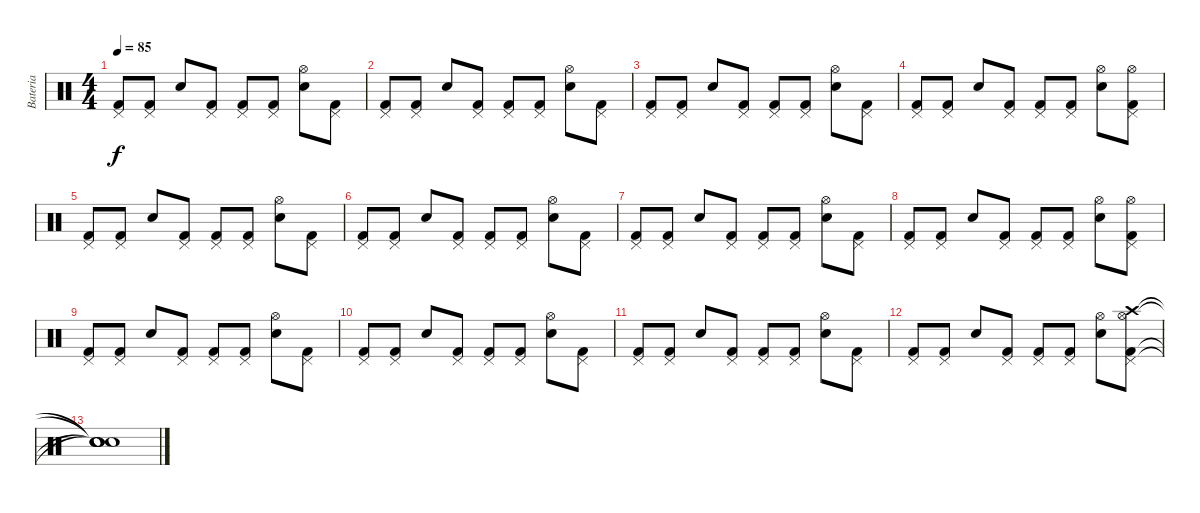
\track ("Bateria" "Bateria") {instrument percussion}
\staff {score}
\articulation defaults
\ts (4 4)
\tempo 85
\clef neutral
\ks c
("Pedal Hi-Hat (hit)" "Kick (hit) 2").8{dy f} ("Pedal Hi-Hat (hit)" "Kick (hit) 2").8 "Snare (hit) 2".8 ("Pedal Hi-Hat (hit)" "Kick (hit) 2").8 ("Pedal Hi-Hat (hit)" "Kick (hit) 2").8 ("Pedal Hi-Hat (hit)" "Kick (hit) 2").8 ("Hi-Hat (open)" "Snare (hit) 2").8 ("Pedal Hi-Hat (hit)" "Kick (hit) 2").8 |
("Pedal Hi-Hat (hit)" "Kick (hit) 2").8 ("Pedal Hi-Hat (hit)" "Kick (hit) 2").8 "Snare (hit) 2".8 ("Pedal Hi-Hat (hit)" "Kick (hit) 2").8 ("Pedal Hi-Hat (hit)" "Kick (hit) 2").8 ("Pedal Hi-Hat (hit)" "Kick (hit) 2").8 ("Hi-Hat (open)" "Snare (hit) 2").8 ("Pedal Hi-Hat (hit)" "Kick (hit) 2").8 |
("Pedal Hi-Hat (hit)" "Kick (hit) 2").8 ("Pedal Hi-Hat (hit)" "Kick (hit) 2").8 "Snare (hit) 2".8 ("Pedal Hi-Hat (hit)" "Kick (hit) 2").8 ("Pedal Hi-Hat (hit)" "Kick (hit) 2").8 ("Pedal Hi-Hat (hit)" "Kick (hit) 2").8 ("Hi-Hat (open)" "Snare (hit) 2").8 ("Pedal Hi-Hat (hit)" "Kick (hit) 2").8 |
("Pedal Hi-Hat (hit)" "Kick (hit) 2").8 ("Pedal Hi-Hat (hit)" "Kick (hit) 2").8 "Snare (hit) 2".8 ("Pedal Hi-Hat (hit)" "Kick (hit) 2").8 ("Pedal Hi-Hat (hit)" "Kick (hit) 2").8 ("Pedal Hi-Hat (hit)" "Kick (hit) 2").8 ("Hi-Hat (open)" "Snare (hit) 2").8 ("Hi-Hat (open)" "Pedal Hi-Hat (hit)" "Kick (hit) 2").8 |
("Pedal Hi-Hat (hit)" "Kick (hit) 2").8 ("Pedal Hi-Hat (hit)" "Kick (hit) 2").8 "Snare (hit) 2".8 ("Pedal Hi-Hat (hit)" "Kick (hit) 2").8 ("Pedal Hi-Hat (hit)" "Kick (hit) 2").8 ("Pedal Hi-Hat (hit)" "Kick (hit) 2").8 ("Hi-Hat (open)" "Snare (hit) 2").8 ("Pedal Hi-Hat (hit)" "Kick (hit) 2").8 |
("Pedal Hi-Hat (hit)" "Kick (hit) 2").8 ("Pedal Hi-Hat (hit)" "Kick (hit) 2").8 "Snare (hit) 2".8 ("Pedal Hi-Hat (hit)" "Kick (hit) 2").8 ("Pedal Hi-Hat (hit)" "Kick (hit) 2").8 ("Pedal Hi-Hat (hit)" "Kick (hit) 2").8 ("Hi-Hat (open)" "Snare (hit) 2").8 ("Pedal Hi-Hat (hit)" "Kick (hit) 2").8 |
("Pedal Hi-Hat (hit)" "Kick (hit) 2").8 ("Pedal Hi-Hat (hit)" "Kick (hit) 2").8 "Snare (hit) 2".8 ("Pedal Hi-Hat (hit)" "Kick (hit) 2").8 ("Pedal Hi-Hat (hit)" "Kick (hit) 2").8 ("Pedal Hi-Hat (hit)" "Kick (hit) 2").8 ("Hi-Hat (open)" "Snare (hit) 2").8 ("Pedal Hi-Hat (hit)" "Kick (hit) 2").8 |
("Pedal Hi-Hat (hit)" "Kick (hit) 2").8 ("Pedal Hi-Hat (hit)" "Kick (hit) 2").8 "Snare (hit) 2".8 ("Pedal Hi-Hat (hit)" "Kick (hit) 2").8 ("Pedal Hi-Hat (hit)" "Kick (hit) 2").8 ("Pedal Hi-Hat (hit)" "Kick (hit) 2").8 ("Hi-Hat (open)" "Snare (hit) 2").8 ("Hi-Hat (open)" "Pedal Hi-Hat (hit)" "Kick (hit) 2").8 |
("Pedal Hi-Hat (hit)" "Kick (hit) 2").8 ("Pedal Hi-Hat (hit)" "Kick (hit) 2").8 "Snare (hit) 2".8 ("Pedal Hi-Hat (hit)" "Kick (hit) 2").8 ("Pedal Hi-Hat (hit)" "Kick (hit) 2").8 ("Pedal Hi-Hat (hit)" "Kick (hit) 2").8 ("Hi-Hat (open)" "Snare (hit) 2").8 ("Pedal Hi-Hat (hit)" "Kick (hit) 2").8 |
("Pedal Hi-Hat (hit)" "Kick (hit) 2").8 ("Pedal Hi-Hat (hit)" "Kick (hit) 2").8 "Snare (hit) 2".8 ("Pedal Hi-Hat (hit)" "Kick (hit) 2").8 ("Pedal Hi-Hat (hit)" "Kick (hit) 2").8 ("Pedal Hi-Hat (hit)" "Kick (hit) 2").8 ("Hi-Hat (open)" "Snare (hit) 2").8 ("Pedal Hi-Hat (hit)" "Kick (hit) 2").8 |
("Pedal Hi-Hat (hit)" "Kick (hit) 2").8 ("Pedal Hi-Hat (hit)" "Kick (hit) 2").8 "Snare (hit) 2".8 ("Pedal Hi-Hat (hit)" "Kick (hit) 2").8 ("Pedal Hi-Hat (hit)" "Kick (hit) 2").8 ("Pedal Hi-Hat (hit)" "Kick (hit) 2").8 ("Hi-Hat (open)" "Snare (hit) 2").8 ("Pedal Hi-Hat (hit)" "Kick (hit) 2").8 |
("Pedal Hi-Hat (hit)" "Kick (hit) 2").8 ("Pedal Hi-Hat (hit)" "Kick (hit) 2").8 "Snare (hit) 2".8 ("Pedal Hi-Hat (hit)" "Kick (hit) 2").8 ("Pedal Hi-Hat (hit)" "Kick (hit) 2").8 ("Pedal Hi-Hat (hit)" "Kick (hit) 2").8 ("Hi-Hat (open)" "Snare (hit) 2").8 ("Crash high (hit)" "Hi-Hat (open)" "Pedal Hi-Hat (hit)" "Kick (hit) 2").8 |
("Snare (hit)"{t} "Snare (hit)"{t} "Snare (hit)"{t} "Snare (hit)"{t} "Snare (hit)").1
